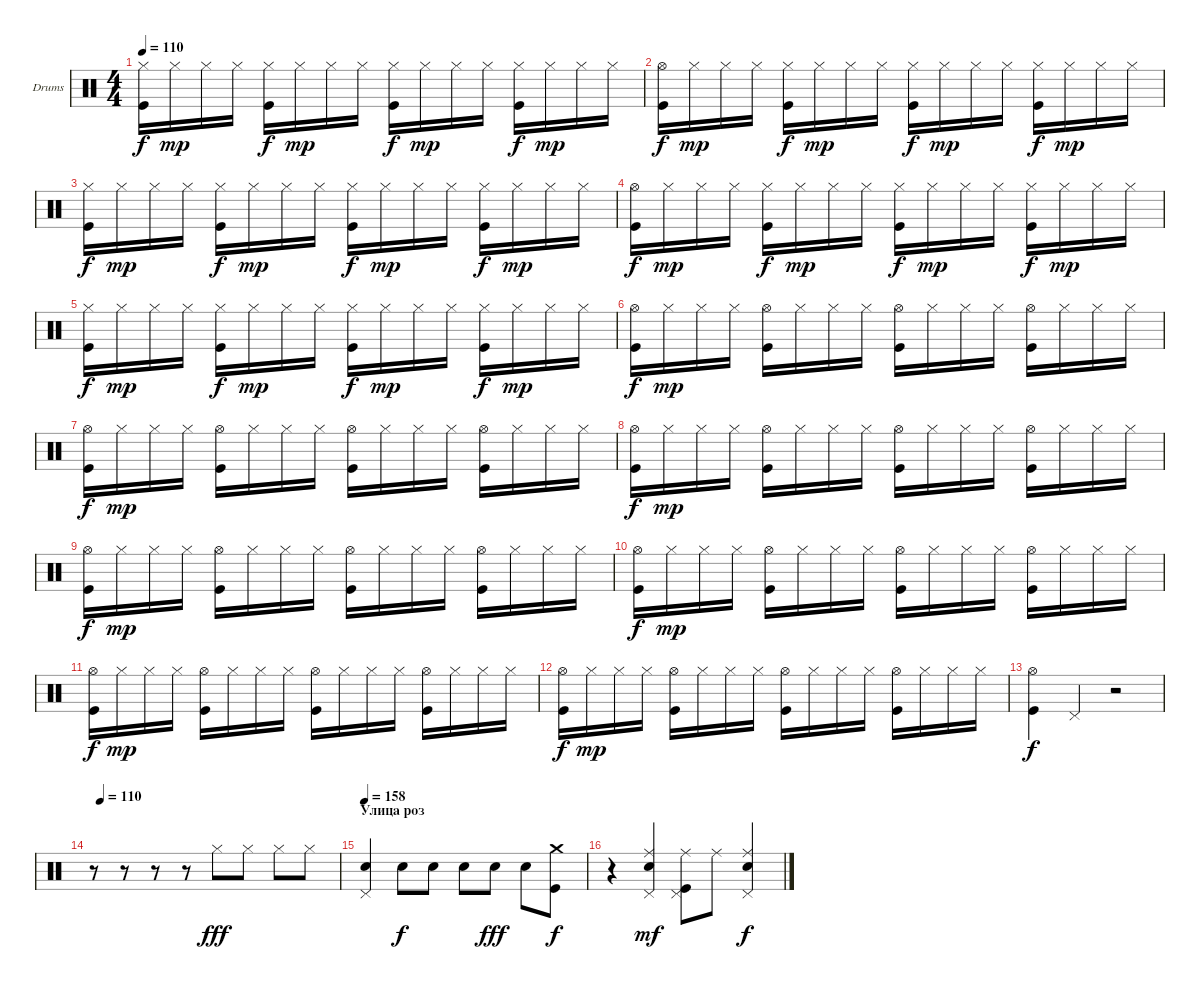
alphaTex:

\defaultSystemsLayout 4
\bracketExtendMode nobrackets
\firstSystemTrackNameOrientation horizontal
\otherSystemsTrackNameOrientation horizontal
\track ("Ударные" "Drums") {instrument percussion}
\staff {score}
\articulation defaults
\ts (4 4)
\tempo 110
\clef neutral
\ks c
("Kick (hit)" "Hi-Hat (closed)").16{dy f} "Hi-Hat (closed)".16{dy mp} "Hi-Hat (closed)".16 "Hi-Hat (closed)".16 ("Hi-Hat (closed)" "Kick (hit)").16{dy f} "Hi-Hat (closed)".16{dy mp} "Hi-Hat (closed)".16 "Hi-Hat (closed)".16 ("Hi-Hat (closed)" "Kick (hit)").16{dy f} "Hi-Hat (closed)".16{dy mp} "Hi-Hat (closed)".16 "Hi-Hat (closed)".16 ("Hi-Hat (closed)" "Kick (hit)").16{dy f} "Hi-Hat (closed)".16{dy mp} "Hi-Hat (closed)".16 "Hi-Hat (closed)".16 |
("Kick (hit)" "Hi-Hat (open)").16{dy f} "Hi-Hat (closed)".16{dy mp} "Hi-Hat (closed)".16 "Hi-Hat (closed)".16 ("Hi-Hat (closed)" "Kick (hit)").16{dy f} "Hi-Hat (closed)".16{dy mp} "Hi-Hat (closed)".16 "Hi-Hat (closed)".16 ("Hi-Hat (closed)" "Kick (hit)").16{dy f} "Hi-Hat (closed)".16{dy mp} "Hi-Hat (closed)".16 "Hi-Hat (closed)".16 ("Hi-Hat (closed)" "Kick (hit)").16{dy f} "Hi-Hat (closed)".16{dy mp} "Hi-Hat (closed)".16 "Hi-Hat (closed)".16 |
("Kick (hit)" "Hi-Hat (closed)").16{dy f} "Hi-Hat (closed)".16{dy mp} "Hi-Hat (closed)".16 "Hi-Hat (closed)".16 ("Hi-Hat (closed)" "Kick (hit)").16{dy f} "Hi-Hat (closed)".16{dy mp} "Hi-Hat (closed)".16 "Hi-Hat (closed)".16 ("Hi-Hat (closed)" "Kick (hit)").16{dy f} "Hi-Hat (closed)".16{dy mp} "Hi-Hat (closed)".16 "Hi-Hat (closed)".16 ("Hi-Hat (closed)" "Kick (hit)").16{dy f} "Hi-Hat (closed)".16{dy mp} "Hi-Hat (closed)".16 "Hi-Hat (closed)".16 |
("Kick (hit)" "Hi-Hat (open)").16{dy f} "Hi-Hat (closed)".16{dy mp} "Hi-Hat (closed)".16 "Hi-Hat (closed)".16 ("Hi-Hat (closed)" "Kick (hit)").16{dy f} "Hi-Hat (closed)".16{dy mp} "Hi-Hat (closed)".16 "Hi-Hat (closed)".16 ("Hi-Hat (closed)" "Kick (hit)").16{dy f} "Hi-Hat (closed)".16{dy mp} "Hi-Hat (closed)".16 "Hi-Hat (closed)".16 ("Hi-Hat (closed)" "Kick (hit)").16{dy f} "Hi-Hat (closed)".16{dy mp} "Hi-Hat (closed)".16 "Hi-Hat (closed)".16 |
("Kick (hit)" "Hi-Hat (closed)").16{dy f} "Hi-Hat (closed)".16{dy mp} "Hi-Hat (closed)".16 "Hi-Hat (closed)".16 ("Hi-Hat (closed)" "Kick (hit)").16{dy f} "Hi-Hat (closed)".16{dy mp} "Hi-Hat (closed)".16 "Hi-Hat (closed)".16 ("Hi-Hat (closed)" "Kick (hit)").16{dy f} "Hi-Hat (closed)".16{dy mp} "Hi-Hat (closed)".16 "Hi-Hat (closed)".16 ("Hi-Hat (closed)" "Kick (hit)").16{dy f} "Hi-Hat (closed)".16{dy mp} "Hi-Hat (closed)".16 "Hi-Hat (closed)".16 |
("Kick (hit)" "Hi-Hat (open)").16{dy f} "Hi-Hat (closed)".16{dy mp} "Hi-Hat (closed)".16 "Hi-Hat (closed)".16 ("Kick (hit)" "Hi-Hat (open)").16 "Hi-Hat (closed)".16 "Hi-Hat (closed)".16 "Hi-Hat (closed)".16 ("Kick (hit)" "Hi-Hat (open)").16 "Hi-Hat (closed)".16 "Hi-Hat (closed)".16 "Hi-Hat (closed)".16 ("Kick (hit)" "Hi-Hat (open)").16 "Hi-Hat (closed)".16 "Hi-Hat (closed)".16 "Hi-Hat (closed)".16 |
("Kick (hit)" "Hi-Hat (open)").16{dy f} "Hi-Hat (closed)".16{dy mp} "Hi-Hat (closed)".16 "Hi-Hat (closed)".16 ("Kick (hit)" "Hi-Hat (open)").16 "Hi-Hat (closed)".16 "Hi-Hat (closed)".16 "Hi-Hat (closed)".16 ("Kick (hit)" "Hi-Hat (open)").16 "Hi-Hat (closed)".16 "Hi-Hat (closed)".16 "Hi-Hat (closed)".16 ("Kick (hit)" "Hi-Hat (open)").16 "Hi-Hat (closed)".16 "Hi-Hat (closed)".16 "Hi-Hat (closed)".16 |
("Kick (hit)" "Hi-Hat (open)").16{dy f} "Hi-Hat (closed)".16{dy mp} "Hi-Hat (closed)".16 "Hi-Hat (closed)".16 ("Kick (hit)" "Hi-Hat (open)").16 "Hi-Hat (closed)".16 "Hi-Hat (closed)".16 "Hi-Hat (closed)".16 ("Kick (hit)" "Hi-Hat (open)").16 "Hi-Hat (closed)".16 "Hi-Hat (closed)".16 "Hi-Hat (closed)".16 ("Kick (hit)" "Hi-Hat (open)").16 "Hi-Hat (closed)".16 "Hi-Hat (closed)".16 "Hi-Hat (closed)".16 |
("Kick (hit)" "Hi-Hat (open)").16{dy f} "Hi-Hat (closed)".16{dy mp} "Hi-Hat (closed)".16 "Hi-Hat (closed)".16 ("Kick (hit)" "Hi-Hat (open)").16 "Hi-Hat (closed)".16 "Hi-Hat (closed)".16 "Hi-Hat (closed)".16 ("Kick (hit)" "Hi-Hat (open)").16 "Hi-Hat (closed)".16 "Hi-Hat (closed)".16 "Hi-Hat (closed)".16 ("Kick (hit)" "Hi-Hat (open)").16 "Hi-Hat (closed)".16 "Hi-Hat (closed)".16 "Hi-Hat (closed)".16 |
("Kick (hit)" "Hi-Hat (open)").16{dy f} "Hi-Hat (closed)".16{dy mp} "Hi-Hat (closed)".16 "Hi-Hat (closed)".16 ("Kick (hit)" "Hi-Hat (open)").16 "Hi-Hat (closed)".16 "Hi-Hat (closed)".16 "Hi-Hat (closed)".16 ("Kick (hit)" "Hi-Hat (open)").16 "Hi-Hat (closed)".16 "Hi-Hat (closed)".16 "Hi-Hat (closed)".16 ("Kick (hit)" "Hi-Hat (open)").16 "Hi-Hat (closed)".16 "Hi-Hat (closed)".16 "Hi-Hat (closed)".16 |
("Kick (hit)" "Hi-Hat (open)").16{dy f} "Hi-Hat (closed)".16{dy mp} "Hi-Hat (closed)".16 "Hi-Hat (closed)".16 ("Kick (hit)" "Hi-Hat (open)").16 "Hi-Hat (closed)".16 "Hi-Hat (closed)".16 "Hi-Hat (closed)".16 ("Kick (hit)" "Hi-Hat (open)").16 "Hi-Hat (closed)".16 "Hi-Hat (closed)".16 "Hi-Hat (closed)".16 ("Kick (hit)" "Hi-Hat (open)").16 "Hi-Hat (closed)".16 "Hi-Hat (closed)".16 "Hi-Hat (closed)".16 |
("Kick (hit)" "Hi-Hat (open)").16{dy f} "Hi-Hat (closed)".16{dy mp} "Hi-Hat (closed)".16 "Hi-Hat (closed)".16 ("Kick (hit)" "Hi-Hat (open)").16 "Hi-Hat (closed)".16 "Hi-Hat (closed)".16 "Hi-Hat (closed)".16 ("Kick (hit)" "Hi-Hat (open)").16 "Hi-Hat (closed)".16 "Hi-Hat (closed)".16 "Hi-Hat (closed)".16 ("Kick (hit)" "Hi-Hat (open)").16 "Hi-Hat (closed)".16 "Hi-Hat (closed)".16 "Hi-Hat (closed)".16 |
("Kick (hit)" "Hi-Hat (open)").4{dy f} "Pedal Hi-Hat (hit)".4 r.2 |
\tempo (110 0.03125)
r.8 r.8 r.8 r.8 "Hi-Hat (closed)".8{dy fff} "Hi-Hat (closed)".8 "Hi-Hat (closed)".8 "Hi-Hat (closed)".8 |
\section ("" "Улица роз")
\tempo 158
("Snare (hit) 2" "Pedal Hi-Hat (hit)").4 "Snare (hit) 2".8{dy f} "Snare (hit) 2".8 "Snare (hit) 2".8 "Snare (hit) 2".8{dy fff} "Snare (hit) 2".8 ("Kick (hit)" "Crash medium (hit)").8{dy f} |
r.4 ("Ride (middle)" "Snare (hit) 2" "Pedal Hi-Hat (hit)").4{dy mf} ("Ride (middle)" "Kick (hit)" "Pedal Hi-Hat (hit)").8 "Ride (middle)".8 ("Snare (hit) 2" "Pedal Hi-Hat (hit)" "Ride (middle)").4{dy f}
